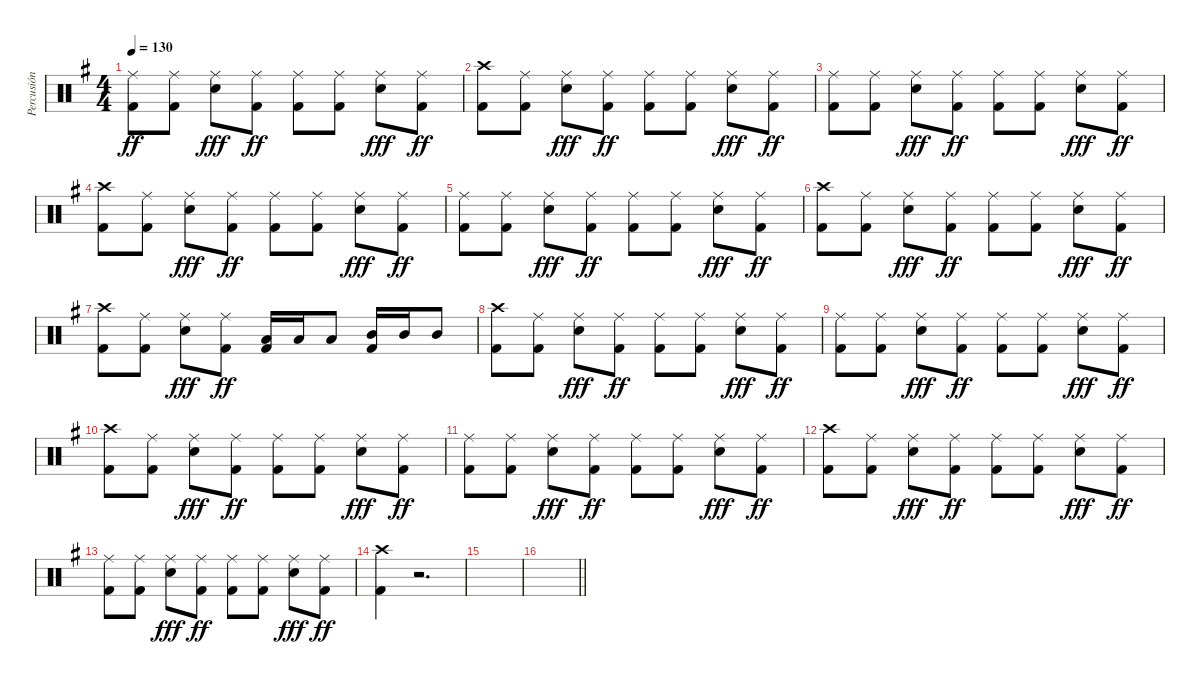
\track ("Percusión" "Percusión") {instrument percussion}
\staff {score}
\articulation defaults
\ts (4 4)
\tempo 130
\clef neutral
\ks g
("Ride (middle)" "Kick (hit) 2").8{dy ff} ("Ride (middle)" "Kick (hit) 2").8 ("Ride (middle)" "Snare (hit) 2").8{dy fff} ("Ride (middle)" "Kick (hit) 2").8{dy ff} ("Ride (middle)" "Kick (hit) 2").8 ("Ride (middle)" "Kick (hit) 2").8 ("Ride (middle)" "Snare (hit) 2").8{dy fff} ("Ride (middle)" "Kick (hit) 2").8{dy ff} |
("Crash high (hit)" "Kick (hit) 2").8 ("Ride (middle)" "Kick (hit) 2").8 ("Ride (middle)" "Snare (hit) 2").8{dy fff} ("Ride (middle)" "Kick (hit) 2").8{dy ff} ("Ride (middle)" "Kick (hit) 2").8 ("Ride (middle)" "Kick (hit) 2").8 ("Ride (middle)" "Snare (hit) 2").8{dy fff} ("Ride (middle)" "Kick (hit) 2").8{dy ff} |
("Ride (middle)" "Kick (hit) 2").8 ("Ride (middle)" "Kick (hit) 2").8 ("Ride (middle)" "Snare (hit) 2").8{dy fff} ("Ride (middle)" "Kick (hit) 2").8{dy ff} ("Ride (middle)" "Kick (hit) 2").8 ("Ride (middle)" "Kick (hit) 2").8 ("Ride (middle)" "Snare (hit) 2").8{dy fff} ("Ride (middle)" "Kick (hit) 2").8{dy ff} |
("Crash high (hit)" "Kick (hit) 2").8 ("Ride (middle)" "Kick (hit) 2").8 ("Ride (middle)" "Snare (hit) 2").8{dy fff} ("Ride (middle)" "Kick (hit) 2").8{dy ff} ("Ride (middle)" "Kick (hit) 2").8 ("Ride (middle)" "Kick (hit) 2").8 ("Ride (middle)" "Snare (hit) 2").8{dy fff} ("Ride (middle)" "Kick (hit) 2").8{dy ff} |
("Ride (middle)" "Kick (hit) 2").8 ("Ride (middle)" "Kick (hit) 2").8 ("Ride (middle)" "Snare (hit) 2").8{dy fff} ("Ride (middle)" "Kick (hit) 2").8{dy ff} ("Ride (middle)" "Kick (hit) 2").8 ("Ride (middle)" "Kick (hit) 2").8 ("Ride (middle)" "Snare (hit) 2").8{dy fff} ("Ride (middle)" "Kick (hit) 2").8{dy ff} |
("Crash high (hit)" "Kick (hit) 2").8 ("Ride (middle)" "Kick (hit) 2").8 ("Ride (middle)" "Snare (hit) 2").8{dy fff} ("Ride (middle)" "Kick (hit) 2").8{dy ff} ("Ride (middle)" "Kick (hit) 2").8 ("Ride (middle)" "Kick (hit) 2").8 ("Ride (middle)" "Snare (hit) 2").8{dy fff} ("Ride (middle)" "Kick (hit) 2").8{dy ff} |
("Crash high (hit)" "Kick (hit) 2").8 ("Ride (middle)" "Kick (hit) 2").8 ("Ride (middle)" "Snare (hit) 2").8{dy fff} ("Ride (middle)" "Kick (hit) 2").8{dy ff} ("Low Tom (hit)" "Kick (hit) 2").16 "Low Tom (hit)".16 "Low Tom (hit)".8 ("Mid Tom (hit)" "Kick (hit) 2").16 "Mid Tom (hit)".16 "Mid Tom (hit)".8 |
("Crash high (hit)" "Kick (hit) 2").8 ("Ride (middle)" "Kick (hit) 2").8 ("Ride (middle)" "Snare (hit) 2").8{dy fff} ("Ride (middle)" "Kick (hit) 2").8{dy ff} ("Ride (middle)" "Kick (hit) 2").8 ("Ride (middle)" "Kick (hit) 2").8 ("Ride (middle)" "Snare (hit) 2").8{dy fff} ("Ride (middle)" "Kick (hit) 2").8{dy ff} |
("Ride (middle)" "Kick (hit) 2").8 ("Ride (middle)" "Kick (hit) 2").8 ("Ride (middle)" "Snare (hit) 2").8{dy fff} ("Ride (middle)" "Kick (hit) 2").8{dy ff} ("Ride (middle)" "Kick (hit) 2").8 ("Ride (middle)" "Kick (hit) 2").8 ("Ride (middle)" "Snare (hit) 2").8{dy fff} ("Ride (middle)" "Kick (hit) 2").8{dy ff} |
("Crash high (hit)" "Kick (hit) 2").8 ("Ride (middle)" "Kick (hit) 2").8 ("Ride (middle)" "Snare (hit) 2").8{dy fff} ("Ride (middle)" "Kick (hit) 2").8{dy ff} ("Ride (middle)" "Kick (hit) 2").8 ("Ride (middle)" "Kick (hit) 2").8 ("Ride (middle)" "Snare (hit) 2").8{dy fff} ("Ride (middle)" "Kick (hit) 2").8{dy ff} |
("Ride (middle)" "Kick (hit) 2").8 ("Ride (middle)" "Kick (hit) 2").8 ("Ride (middle)" "Snare (hit) 2").8{dy fff} ("Ride (middle)" "Kick (hit) 2").8{dy ff} ("Ride (middle)" "Kick (hit) 2").8 ("Ride (middle)" "Kick (hit) 2").8 ("Ride (middle)" "Snare (hit) 2").8{dy fff} ("Ride (middle)" "Kick (hit) 2").8{dy ff} |
("Crash high (hit)" "Kick (hit) 2").8 ("Ride (middle)" "Kick (hit) 2").8 ("Ride (middle)" "Snare (hit) 2").8{dy fff} ("Ride (middle)" "Kick (hit) 2").8{dy ff} ("Ride (middle)" "Kick (hit) 2").8 ("Ride (middle)" "Kick (hit) 2").8 ("Ride (middle)" "Snare (hit) 2").8{dy fff} ("Ride (middle)" "Kick (hit) 2").8{dy ff} |
("Ride (middle)" "Kick (hit) 2").8 ("Ride (middle)" "Kick (hit) 2").8 ("Ride (middle)" "Snare (hit) 2").8{dy fff} ("Ride (middle)" "Kick (hit) 2").8{dy ff} ("Ride (middle)" "Kick (hit) 2").8 ("Ride (middle)" "Kick (hit) 2").8 ("Ride (middle)" "Snare (hit) 2").8{dy fff} ("Ride (middle)" "Kick (hit) 2").8{dy ff} |
("Crash high (hit)" "Kick (hit) 2").4 r.2{d} |
|
\barLineRight lightlight
